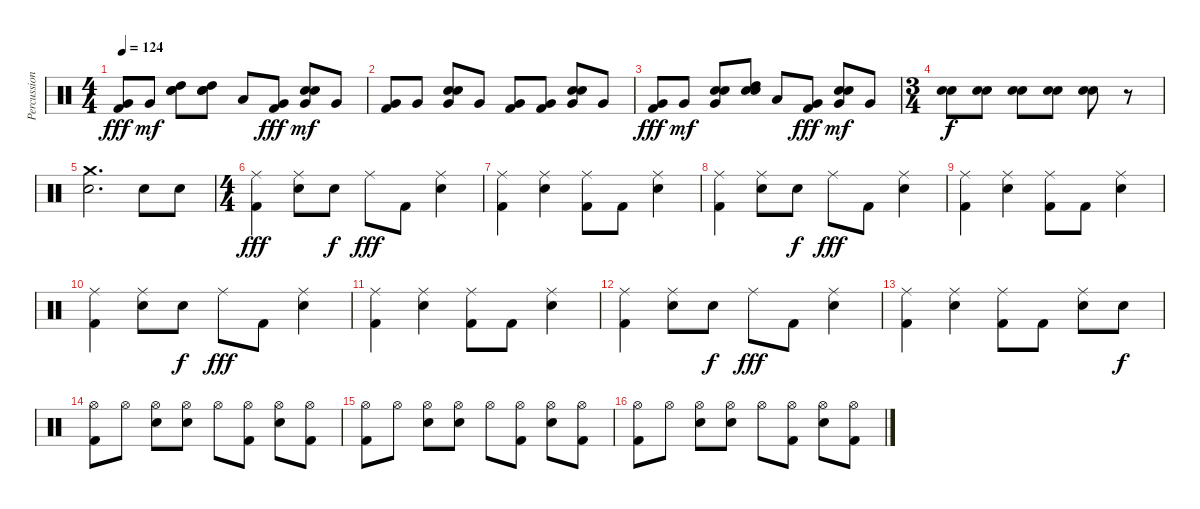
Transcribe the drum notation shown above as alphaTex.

\track ("Percussion" "Percussion") {instrument percussion}
\staff {score}
\articulation defaults
\ts (4 4)
\tempo 124
\clef neutral
\ks c
("Very Low Tom (hit)" "Kick (hit) 2").8{dy fff} "Very Low Tom (hit)".8{dy mf} ("Hand Clap (hit)" "High Tom (hit)" "Snare (hit) 2").8 ("Hand Clap (hit)" "High Tom (hit)" "Snare (hit) 2").8 "Low Tom (hit)".8 ("Very Low Tom (hit)" "Kick (hit) 2").8{dy fff} ("Hand Clap (hit)" "Very Low Tom (hit)" "Snare (hit) 2").8{dy mf} "Very Low Tom (hit)".8 |
("Very Low Tom (hit)" "Kick (hit) 2").8 "Very Low Tom (hit)".8 ("Hand Clap (hit)" "Very Low Tom (hit)" "Snare (hit) 2").8 "Very Low Tom (hit)".8 ("Very Low Tom (hit)" "Kick (hit) 2").8 ("Very Low Tom (hit)" "Kick (hit) 2").8 ("Hand Clap (hit)" "Very Low Tom (hit)" "Snare (hit) 2").8 "Very Low Tom (hit)".8 |
("Very Low Tom (hit)" "Kick (hit) 2").8{dy fff} "Very Low Tom (hit)".8{dy mf} ("Hand Clap (hit)" "Very Low Tom (hit)" "Snare (hit) 2").8 ("Hand Clap (hit)" "High Tom (hit)" "Snare (hit) 2").8 "Low Tom (hit)".8 ("Very Low Tom (hit)" "Kick (hit) 2").8{dy fff} ("Hand Clap (hit)" "Very Low Tom (hit)" "Snare (hit) 2").8{dy mf} "Very Low Tom (hit)".8 |
\ts (3 4)
("Hand Clap (hit)" "Snare (hit) 2").8{dy f} ("Hand Clap (hit)" "Snare (hit) 2").8 ("Hand Clap (hit)" "Snare (hit) 2").8 ("Hand Clap (hit)" "Snare (hit) 2").8 ("Hand Clap (hit)" "Snare (hit) 2").8 r.8 |
("Crash medium (hit)" "Snare (hit) 2").2{d} "Snare (hit) 2".8 "Snare (hit) 2".8 |
\ts (4 4)
("Ride (middle)" "Kick (hit) 2").4{dy fff} ("Ride (middle)" "Snare (hit) 2").8 "Snare (hit) 2".8{dy f} "Ride (middle)".8{dy fff} "Kick (hit) 2".8 ("Ride (middle)" "Snare (hit) 2").4 |
("Ride (middle)" "Kick (hit) 2").4 ("Ride (middle)" "Snare (hit) 2").4 ("Ride (middle)" "Kick (hit) 2").8 "Kick (hit) 2".8 ("Ride (middle)" "Snare (hit) 2").4 |
("Ride (middle)" "Kick (hit) 2").4 ("Ride (middle)" "Snare (hit) 2").8 "Snare (hit) 2".8{dy f} "Ride (middle)".8{dy fff} "Kick (hit) 2".8 ("Ride (middle)" "Snare (hit) 2").4 |
("Ride (middle)" "Kick (hit) 2").4 ("Ride (middle)" "Snare (hit) 2").4 ("Ride (middle)" "Kick (hit) 2").8 "Kick (hit) 2".8 ("Ride (middle)" "Snare (hit) 2").4 |
("Ride (middle)" "Kick (hit) 2").4 ("Ride (middle)" "Snare (hit) 2").8 "Snare (hit) 2".8{dy f} "Ride (middle)".8{dy fff} "Kick (hit) 2".8 ("Ride (middle)" "Snare (hit) 2").4 |
("Ride (middle)" "Kick (hit) 2").4 ("Ride (middle)" "Snare (hit) 2").4 ("Ride (middle)" "Kick (hit) 2").8 "Kick (hit) 2".8 ("Ride (middle)" "Snare (hit) 2").4 |
("Ride (middle)" "Kick (hit) 2").4 ("Ride (middle)" "Snare (hit) 2").8 "Snare (hit) 2".8{dy f} "Ride (middle)".8{dy fff} "Kick (hit) 2".8 ("Ride (middle)" "Snare (hit) 2").4 |
("Ride (middle)" "Kick (hit) 2").4 ("Ride (middle)" "Snare (hit) 2").4 ("Ride (middle)" "Kick (hit) 2").8 "Kick (hit) 2".8 ("Ride (middle)" "Snare (hit) 2").8 "Snare (hit) 2".8{dy f} |
("Hi-Hat (open)" "Kick (hit) 2").8 "Hi-Hat (open)".8 ("Hi-Hat (open)" "Snare (hit) 2").8 ("Hi-Hat (open)" "Snare (hit) 2").8 "Hi-Hat (open)".8 ("Hi-Hat (open)" "Kick (hit) 2").8 ("Hi-Hat (open)" "Snare (hit) 2").8 ("Hi-Hat (open)" "Kick (hit) 2").8 |
("Hi-Hat (open)" "Kick (hit) 2").8 "Hi-Hat (open)".8 ("Hi-Hat (open)" "Snare (hit) 2").8 ("Hi-Hat (open)" "Snare (hit) 2").8 "Hi-Hat (open)".8 ("Hi-Hat (open)" "Kick (hit) 2").8 ("Hi-Hat (open)" "Snare (hit) 2").8 ("Hi-Hat (open)" "Kick (hit) 2").8 |
("Hi-Hat (open)" "Kick (hit) 2").8 "Hi-Hat (open)".8 ("Hi-Hat (open)" "Snare (hit) 2").8 ("Hi-Hat (open)" "Snare (hit) 2").8 "Hi-Hat (open)".8 ("Hi-Hat (open)" "Kick (hit) 2").8 ("Hi-Hat (open)" "Snare (hit) 2").8 ("Hi-Hat (open)" "Kick (hit) 2").8
